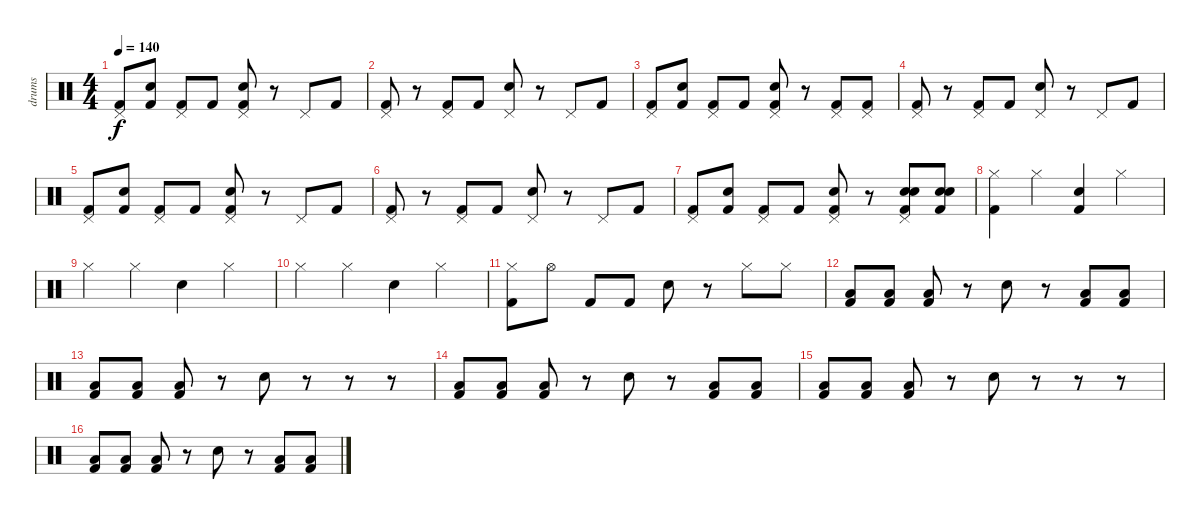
\track ("drums" "drums") {instrument percussion}
\staff {score}
\articulation defaults
\ts (4 4)
\tempo 140
\clef neutral
\ks c
("Kick (hit) 2" "Pedal Hi-Hat (hit)").8{dy f} ("Snare (hit) 2" "Kick (hit) 2").8 ("Kick (hit) 2" "Pedal Hi-Hat (hit)").8 "Kick (hit) 2".8 ("Snare (hit) 2" "Kick (hit) 2" "Pedal Hi-Hat (hit)").8 r.8 "Pedal Hi-Hat (hit)".8 "Kick (hit) 2".8 |
("Pedal Hi-Hat (hit)" "Kick (hit) 2").8 r.8 ("Pedal Hi-Hat (hit)" "Kick (hit) 2").8 "Kick (hit) 2".8 ("Pedal Hi-Hat (hit)" "Snare (hit) 2").8 r.8 "Pedal Hi-Hat (hit)".8 "Kick (hit) 2".8 |
("Kick (hit) 2" "Pedal Hi-Hat (hit)").8 ("Snare (hit) 2" "Kick (hit) 2").8 ("Kick (hit) 2" "Pedal Hi-Hat (hit)").8 "Kick (hit) 2".8 ("Snare (hit) 2" "Kick (hit) 2" "Pedal Hi-Hat (hit)").8 r.8 ("Kick (hit) 2" "Pedal Hi-Hat (hit)").8 ("Kick (hit) 2" "Pedal Hi-Hat (hit)").8 |
("Pedal Hi-Hat (hit)" "Kick (hit) 2").8 r.8 ("Pedal Hi-Hat (hit)" "Kick (hit) 2").8 "Kick (hit) 2".8 ("Pedal Hi-Hat (hit)" "Snare (hit) 2").8 r.8 "Pedal Hi-Hat (hit)".8 "Kick (hit) 2".8 |
("Kick (hit) 2" "Pedal Hi-Hat (hit)").8 ("Snare (hit) 2" "Kick (hit) 2").8 ("Kick (hit) 2" "Pedal Hi-Hat (hit)").8 "Kick (hit) 2".8 ("Snare (hit) 2" "Kick (hit) 2" "Pedal Hi-Hat (hit)").8 r.8 "Pedal Hi-Hat (hit)".8 "Kick (hit) 2".8 |
("Pedal Hi-Hat (hit)" "Kick (hit) 2").8 r.8 ("Pedal Hi-Hat (hit)" "Kick (hit) 2").8 "Kick (hit) 2".8 ("Pedal Hi-Hat (hit)" "Snare (hit) 2").8 r.8 "Pedal Hi-Hat (hit)".8 "Kick (hit) 2".8 |
("Kick (hit) 2" "Pedal Hi-Hat (hit)").8 ("Snare (hit) 2" "Kick (hit) 2").8 ("Kick (hit) 2" "Pedal Hi-Hat (hit)").8 "Kick (hit) 2".8 ("Snare (hit) 2" "Kick (hit) 2" "Pedal Hi-Hat (hit)").8 r.8 ("Kick (hit) 2" "Snare (hit) 2" "Snare (hit) 2" "Pedal Hi-Hat (hit)").8 ("Kick (hit) 2" "Snare (hit) 2" "Snare (hit) 2").8 |
("Hi-Hat (closed)" "Kick (hit) 2").4 "Hi-Hat (closed)".4 ("Snare (hit) 2" "Kick (hit) 2").4 "Hi-Hat (closed)".4 |
"Hi-Hat (closed)".4 "Hi-Hat (closed)".4 "Snare (hit) 2".4 "Hi-Hat (closed)".4 |
"Hi-Hat (closed)".4 "Hi-Hat (closed)".4 "Snare (hit) 2".4 "Hi-Hat (closed)".4 |
("Hi-Hat (closed)" "Kick (hit) 2").8 "Hi-Hat (open)".8 "Kick (hit) 2".8 "Kick (hit) 2".8 "Snare (hit) 2".8 r.8 "Hi-Hat (closed)".8 "Hi-Hat (closed)".8 |
("Low Floor Tom (hit)" "Kick (hit) 2").8 ("Low Floor Tom (hit)" "Kick (hit) 2").8 ("Low Floor Tom (hit)" "Kick (hit) 2").8 r.8 "Snare (hit) 2".8 r.8 ("Low Floor Tom (hit)" "Kick (hit) 2").8 ("Low Floor Tom (hit)" "Kick (hit) 2").8 |
("Low Floor Tom (hit)" "Kick (hit) 2").8 ("Low Floor Tom (hit)" "Kick (hit) 2").8 ("Low Floor Tom (hit)" "Kick (hit) 2").8 r.8 "Snare (hit) 2".8 r.8 r.8 r.8 |
("Low Floor Tom (hit)" "Kick (hit) 2").8 ("Low Floor Tom (hit)" "Kick (hit) 2").8 ("Low Floor Tom (hit)" "Kick (hit) 2").8 r.8 "Snare (hit) 2".8 r.8 ("Low Floor Tom (hit)" "Kick (hit) 2").8 ("Low Floor Tom (hit)" "Kick (hit) 2").8 |
("Low Floor Tom (hit)" "Kick (hit) 2").8 ("Low Floor Tom (hit)" "Kick (hit) 2").8 ("Low Floor Tom (hit)" "Kick (hit) 2").8 r.8 "Snare (hit) 2".8 r.8 r.8 r.8 |
("Low Floor Tom (hit)" "Kick (hit) 2").8 ("Low Floor Tom (hit)" "Kick (hit) 2").8 ("Low Floor Tom (hit)" "Kick (hit) 2").8 r.8 "Snare (hit) 2".8 r.8 ("Low Floor Tom (hit)" "Kick (hit) 2").8 ("Low Floor Tom (hit)" "Kick (hit) 2").8
